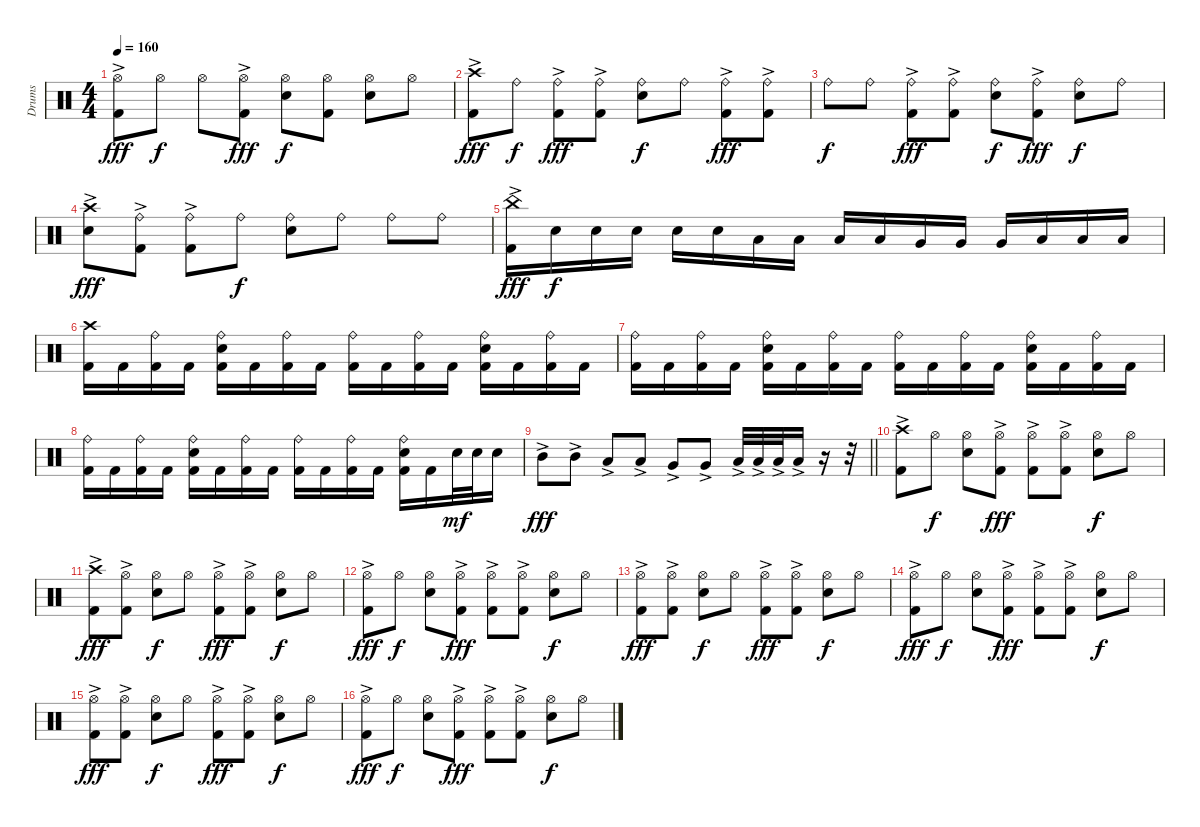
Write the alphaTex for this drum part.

\track ("Drums" "Drums") {instrument percussion}
\staff {score}
\articulation defaults
\ts (4 4)
\tempo 160
\clef neutral
\ks c
("Hi-Hat (open)" "Kick (hit) 2"{ac}).8{dy fff} "Hi-Hat (open)".8{dy f} "Hi-Hat (open)".8 ("Hi-Hat (open)" "Kick (hit) 2"{ac}).8{dy fff} ("Hi-Hat (open)" "Snare (hit) 2").8{dy f} ("Hi-Hat (open)" "Kick (hit) 2").8 ("Hi-Hat (open)" "Snare (hit) 2").8 "Hi-Hat (open)".8 |
("Crash high (hit)" "Kick (hit) 2"{ac}).8{dy fff} "Ride (bell)".8{dy f} ("Ride (bell)" "Kick (hit) 2"{ac}).8{dy fff} ("Ride (bell)" "Kick (hit) 2"{ac}).8 ("Ride (bell)" "Snare (hit) 2").8{dy f} "Ride (bell)".8 ("Ride (bell)" "Kick (hit) 2"{ac}).8{dy fff} ("Ride (bell)" "Kick (hit) 2"{ac}).8 |
"Ride (bell)".8{dy f} "Ride (bell)".8 ("Ride (bell)" "Kick (hit) 2"{ac}).8{dy fff} ("Ride (bell)" "Kick (hit) 2"{ac}).8 ("Ride (bell)" "Snare (hit) 2").8{dy f} ("Ride (bell)" "Kick (hit) 2"{ac}).8{dy fff} ("Ride (bell)" "Snare (hit) 2").8{dy f} "Ride (bell)".8 |
("Crash high (hit)"{ac} "Snare (hit) 2").8{dy fff} ("Ride (bell)" "Kick (hit) 2"{ac}).8 ("Ride (bell)" "Kick (hit) 2"{ac}).8 "Ride (bell)".8{dy f} ("Ride (bell)" "Snare (hit) 2").8 "Ride (bell)".8 "Ride (bell)".8 "Ride (bell)".8 |
("China (hit)"{ac} "Kick (hit) 2"{ac}).16{dy fff} "Snare (hit) 2".16{dy f} "Snare (hit) 2".16 "Snare (hit) 2".16 "Snare (hit) 2".16 "Snare (hit) 2".16 "Low Tom (hit)".16 "Low Tom (hit)".16 "Low Tom (hit)".16 "Low Tom (hit)".16 "Very Low Tom (hit)".16 "Very Low Tom (hit)".16 "Very Low Tom (hit)".16 "Low Floor Tom (hit)".16 "Low Floor Tom (hit)".16 "Low Floor Tom (hit)".16 |
("Crash high (hit)" "Kick (hit) 2").16 "Kick (hit) 2".16 ("Ride (bell)" "Kick (hit) 2").16 "Kick (hit) 2".16 ("Ride (bell)" "Snare (hit) 2" "Kick (hit) 2").16 "Kick (hit) 2".16 ("Ride (bell)" "Kick (hit) 2").16 "Kick (hit) 2".16 ("Ride (bell)" "Kick (hit) 2").16 "Kick (hit) 2".16 ("Ride (bell)" "Kick (hit) 2").16 "Kick (hit) 2".16 ("Ride (bell)" "Snare (hit) 2" "Kick (hit) 2").16 "Kick (hit) 2".16 ("Ride (bell)" "Kick (hit) 2").16 "Kick (hit) 2".16 |
("Ride (bell)" "Kick (hit) 2").16 "Kick (hit) 2".16 ("Ride (bell)" "Kick (hit) 2").16 "Kick (hit) 2".16 ("Ride (bell)" "Snare (hit) 2" "Kick (hit) 2").16 "Kick (hit) 2".16 ("Ride (bell)" "Kick (hit) 2").16 "Kick (hit) 2".16 ("Ride (bell)" "Kick (hit) 2").16 "Kick (hit) 2".16 ("Ride (bell)" "Kick (hit) 2").16 "Kick (hit) 2".16 ("Ride (bell)" "Snare (hit) 2" "Kick (hit) 2").16 "Kick (hit) 2".16 ("Ride (bell)" "Kick (hit) 2").16 "Kick (hit) 2".16 |
("Ride (bell)" "Kick (hit) 2").16 "Kick (hit) 2".16 ("Ride (bell)" "Kick (hit) 2").16 "Kick (hit) 2".16 ("Ride (bell)" "Snare (hit) 2" "Kick (hit) 2").16 "Kick (hit) 2".16 ("Ride (bell)" "Kick (hit) 2").16 "Kick (hit) 2".16 ("Ride (bell)" "Kick (hit) 2").16 "Kick (hit) 2".16 ("Ride (bell)" "Kick (hit) 2").16 "Kick (hit) 2".16 ("Ride (bell)" "Snare (hit) 2" "Kick (hit) 2").16 "Kick (hit) 2".16 "Snare (hit) 2".32{dy mf} "Snare (hit) 2".32 "Snare (hit) 2".16 |
\barLineRight lightlight "Mid Tom (hit)"{ac}.8{dy fff} "Mid Tom (hit)"{ac}.8 "Low Tom (hit)"{ac}.8 "Low Tom (hit)"{ac}.8 "Very Low Tom (hit)"{ac}.8 "Very Low Tom (hit)"{ac}.8 "Low Floor Tom (hit)"{ac}.32 "Low Floor Tom (hit)"{ac}.32 "Low Floor Tom (hit)"{ac}.32 "Low Floor Tom (hit)"{ac}.16
r.16 r.32 |
("Crash high (hit)" "Kick (hit) 2"{ac}).8 "Hi-Hat (open)".8{dy f} ("Hi-Hat (open)" "Snare (hit) 2").8 ("Hi-Hat (open)" "Kick (hit) 2"{ac}).8{dy fff} ("Hi-Hat (open)" "Kick (hit) 2"{ac}).8 ("Hi-Hat (open)" "Kick (hit) 2"{ac}).8 ("Hi-Hat (open)" "Snare (hit) 2").8{dy f} "Hi-Hat (open)".8 |
("Crash high (hit)" "Kick (hit) 2"{ac}).8{dy fff} ("Hi-Hat (open)" "Kick (hit) 2"{ac}).8 ("Hi-Hat (open)" "Snare (hit) 2").8{dy f} "Hi-Hat (open)".8 ("Hi-Hat (open)" "Kick (hit) 2"{ac}).8{dy fff} ("Hi-Hat (open)" "Kick (hit) 2"{ac}).8 ("Hi-Hat (open)" "Snare (hit) 2").8{dy f} "Hi-Hat (open)".8 |
("Hi-Hat (open)" "Kick (hit) 2"{ac}).8{dy fff} "Hi-Hat (open)".8{dy f} ("Hi-Hat (open)" "Snare (hit) 2").8 ("Hi-Hat (open)" "Kick (hit) 2"{ac}).8{dy fff} ("Hi-Hat (open)" "Kick (hit) 2"{ac}).8 ("Hi-Hat (open)" "Kick (hit) 2"{ac}).8 ("Hi-Hat (open)" "Snare (hit) 2").8{dy f} "Hi-Hat (open)".8 |
("Hi-Hat (open)" "Kick (hit) 2"{ac}).8{dy fff} ("Hi-Hat (open)" "Kick (hit) 2"{ac}).8 ("Hi-Hat (open)" "Snare (hit) 2").8{dy f} "Hi-Hat (open)".8 ("Hi-Hat (open)" "Kick (hit) 2"{ac}).8{dy fff} ("Hi-Hat (open)" "Kick (hit) 2"{ac}).8 ("Hi-Hat (open)" "Snare (hit) 2").8{dy f} "Hi-Hat (open)".8 |
("Hi-Hat (open)" "Kick (hit) 2"{ac}).8{dy fff} "Hi-Hat (open)".8{dy f} ("Hi-Hat (open)" "Snare (hit) 2").8 ("Hi-Hat (open)" "Kick (hit) 2"{ac}).8{dy fff} ("Hi-Hat (open)" "Kick (hit) 2"{ac}).8 ("Hi-Hat (open)" "Kick (hit) 2"{ac}).8 ("Hi-Hat (open)" "Snare (hit) 2").8{dy f} "Hi-Hat (open)".8 |
("Hi-Hat (open)" "Kick (hit) 2"{ac}).8{dy fff} ("Hi-Hat (open)" "Kick (hit) 2"{ac}).8 ("Hi-Hat (open)" "Snare (hit) 2").8{dy f} "Hi-Hat (open)".8 ("Hi-Hat (open)" "Kick (hit) 2"{ac}).8{dy fff} ("Hi-Hat (open)" "Kick (hit) 2"{ac}).8 ("Hi-Hat (open)" "Snare (hit) 2").8{dy f} "Hi-Hat (open)".8 |
("Hi-Hat (open)" "Kick (hit) 2"{ac}).8{dy fff} "Hi-Hat (open)".8{dy f} ("Hi-Hat (open)" "Snare (hit) 2").8 ("Hi-Hat (open)" "Kick (hit) 2"{ac}).8{dy fff} ("Hi-Hat (open)" "Kick (hit) 2"{ac}).8 ("Hi-Hat (open)" "Kick (hit) 2"{ac}).8 ("Hi-Hat (open)" "Snare (hit) 2").8{dy f} "Hi-Hat (open)".8
